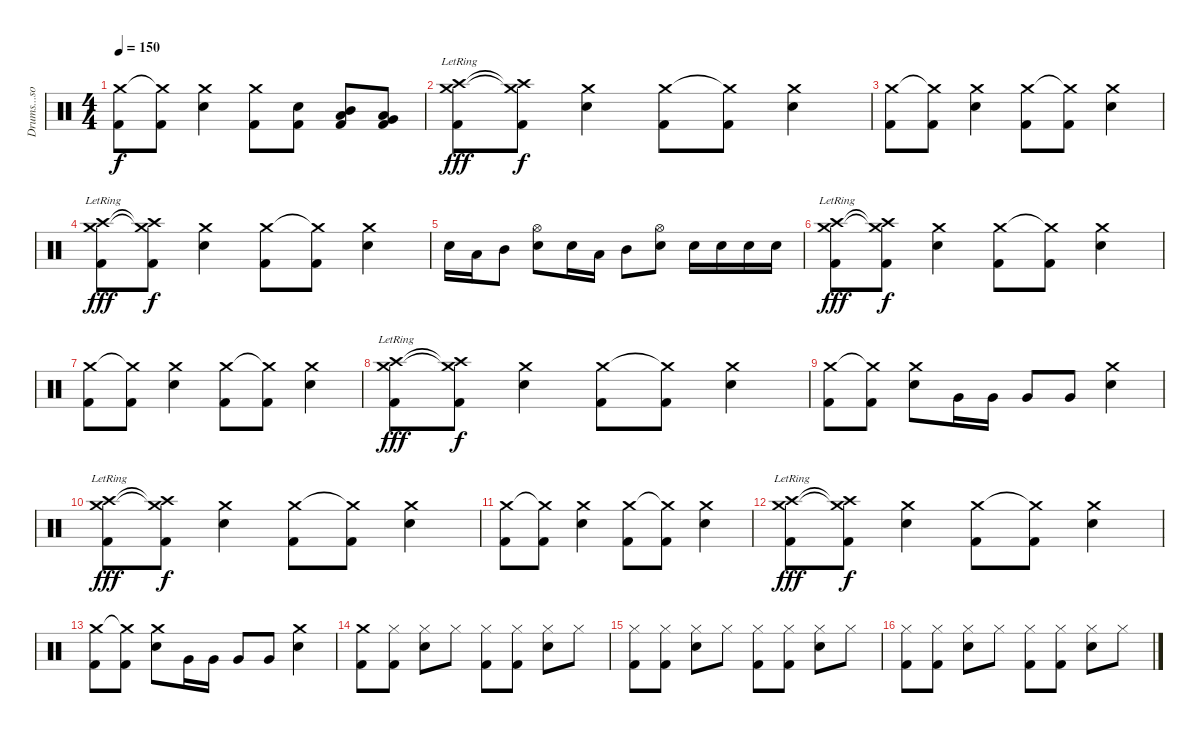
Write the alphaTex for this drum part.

\track ("Drums...song tabbed by ae" "Drums...so") {instrument percussion}
\staff {score}
\articulation defaults
\ts (4 4)
\tempo 150
\clef neutral
\ks c
("Crash medium (hit)" "Kick (hit) 2").8{dy f} ("Crash medium (hit)"{t} "Kick (hit) 2").8 ("Crash medium (hit)" "Electric Snare (hit)").4 ("Crash medium (hit)" "Kick (hit) 2").8 ("Electric Snare (hit)" "Kick (hit) 2").8 ("Mid Tom (hit)" "Low Tom (hit)" "Kick (hit) 2").8 ("Low Tom (hit)" "Very Low Tom (hit)" "Kick (hit) 2").8 |
("Crash medium (hit)"{lr} "Crash high (hit)" "Kick (hit) 2").8{dy fff} ("Crash medium (hit)"{t} "Crash high (hit)"{t} "Kick (hit) 2").8{dy f} ("Crash medium (hit)" "Electric Snare (hit)").4 ("Crash medium (hit)" "Kick (hit) 2").8 ("Crash medium (hit)"{t} "Kick (hit) 2").8 ("Crash medium (hit)" "Electric Snare (hit)").4 |
("Crash medium (hit)" "Kick (hit) 2").8 ("Crash medium (hit)"{t} "Kick (hit) 2").8 ("Crash medium (hit)" "Electric Snare (hit)").4 ("Crash medium (hit)" "Kick (hit) 2").8 ("Crash medium (hit)"{t} "Kick (hit) 2").8 ("Crash medium (hit)" "Electric Snare (hit)").4 |
("Crash medium (hit)"{lr} "Crash high (hit)" "Kick (hit) 2").8{dy fff} ("Crash medium (hit)"{t} "Crash high (hit)"{t} "Kick (hit) 2").8{dy f} ("Crash medium (hit)" "Electric Snare (hit)").4 ("Crash medium (hit)" "Kick (hit) 2").8 ("Crash medium (hit)"{t} "Kick (hit) 2").8 ("Crash medium (hit)" "Electric Snare (hit)").4 |
"Electric Snare (hit)".16 "Low Tom (hit)".16 "Mid Tom (hit)".8 ("Hi-Hat (open)" "Electric Snare (hit)").8 "Electric Snare (hit)".16 "Low Tom (hit)".16 "Mid Tom (hit)".8 ("Hi-Hat (open)" "Electric Snare (hit)").8 "Electric Snare (hit)".16 "Electric Snare (hit)".16 "Electric Snare (hit)".16 "Electric Snare (hit)".16 |
("Crash medium (hit)"{lr} "Crash high (hit)" "Kick (hit) 2").8{dy fff} ("Crash medium (hit)"{t} "Crash high (hit)"{t} "Kick (hit) 2").8{dy f} ("Crash medium (hit)" "Electric Snare (hit)").4 ("Crash medium (hit)" "Kick (hit) 2").8 ("Crash medium (hit)"{t} "Kick (hit) 2").8 ("Crash medium (hit)" "Electric Snare (hit)").4 |
("Crash medium (hit)" "Kick (hit) 2").8 ("Crash medium (hit)"{t} "Kick (hit) 2").8 ("Crash medium (hit)" "Electric Snare (hit)").4 ("Crash medium (hit)" "Kick (hit) 2").8 ("Crash medium (hit)"{t} "Kick (hit) 2").8 ("Crash medium (hit)" "Electric Snare (hit)").4 |
("Crash medium (hit)"{lr} "Crash high (hit)" "Kick (hit) 2").8{dy fff} ("Crash medium (hit)"{t} "Crash high (hit)"{t} "Kick (hit) 2").8{dy f} ("Crash medium (hit)" "Electric Snare (hit)").4 ("Crash medium (hit)" "Kick (hit) 2").8 ("Crash medium (hit)"{t} "Kick (hit) 2").8 ("Crash medium (hit)" "Electric Snare (hit)").4 |
("Crash medium (hit)" "Kick (hit) 2").8 ("Crash medium (hit)"{t} "Kick (hit) 2").8 ("Crash medium (hit)" "Electric Snare (hit)").8 "Very Low Tom (hit)".16 "Very Low Tom (hit)".16 "Very Low Tom (hit)".8 "Very Low Tom (hit)".8 ("Crash medium (hit)" "Electric Snare (hit)").4 |
("Crash medium (hit)"{lr} "Crash high (hit)" "Kick (hit) 2").8{dy fff} ("Crash medium (hit)"{t} "Crash high (hit)"{t} "Kick (hit) 2").8{dy f} ("Crash medium (hit)" "Electric Snare (hit)").4 ("Crash medium (hit)" "Kick (hit) 2").8 ("Crash medium (hit)"{t} "Kick (hit) 2").8 ("Crash medium (hit)" "Electric Snare (hit)").4 |
("Crash medium (hit)" "Kick (hit) 2").8 ("Crash medium (hit)"{t} "Kick (hit) 2").8 ("Crash medium (hit)" "Electric Snare (hit)").4 ("Crash medium (hit)" "Kick (hit) 2").8 ("Crash medium (hit)"{t} "Kick (hit) 2").8 ("Crash medium (hit)" "Electric Snare (hit)").4 |
("Crash medium (hit)"{lr} "Crash high (hit)" "Kick (hit) 2").8{dy fff} ("Crash medium (hit)"{t} "Crash high (hit)"{t} "Kick (hit) 2").8{dy f} ("Crash medium (hit)" "Electric Snare (hit)").4 ("Crash medium (hit)" "Kick (hit) 2").8 ("Crash medium (hit)"{t} "Kick (hit) 2").8 ("Crash medium (hit)" "Electric Snare (hit)").4 |
("Crash medium (hit)" "Kick (hit) 2").8 ("Crash medium (hit)"{t} "Kick (hit) 2").8 ("Crash medium (hit)" "Electric Snare (hit)").8 "Very Low Tom (hit)".16 "Very Low Tom (hit)".16 "Very Low Tom (hit)".8 "Very Low Tom (hit)".8 ("Crash medium (hit)" "Electric Snare (hit)").4 |
("Crash medium (hit)" "Kick (hit) 2").8 ("Hi-Hat (closed)" "Kick (hit) 2").8 ("Hi-Hat (closed)" "Electric Snare (hit)").8 "Hi-Hat (closed)".8 ("Hi-Hat (closed)" "Kick (hit) 2").8 ("Hi-Hat (closed)" "Kick (hit) 2").8 ("Hi-Hat (closed)" "Electric Snare (hit)").8 "Hi-Hat (closed)".8 |
("Hi-Hat (closed)" "Kick (hit) 2").8 ("Hi-Hat (closed)" "Kick (hit) 2").8 ("Hi-Hat (closed)" "Electric Snare (hit)").8 "Hi-Hat (closed)".8 ("Hi-Hat (closed)" "Kick (hit) 2").8 ("Hi-Hat (closed)" "Kick (hit) 2").8 ("Hi-Hat (closed)" "Electric Snare (hit)").8 "Hi-Hat (closed)".8 |
("Hi-Hat (closed)" "Kick (hit) 2").8 ("Hi-Hat (closed)" "Kick (hit) 2").8 ("Hi-Hat (closed)" "Electric Snare (hit)").8 "Hi-Hat (closed)".8 ("Hi-Hat (closed)" "Kick (hit) 2").8 ("Hi-Hat (closed)" "Kick (hit) 2").8 ("Hi-Hat (closed)" "Electric Snare (hit)").8 "Hi-Hat (closed)".8
